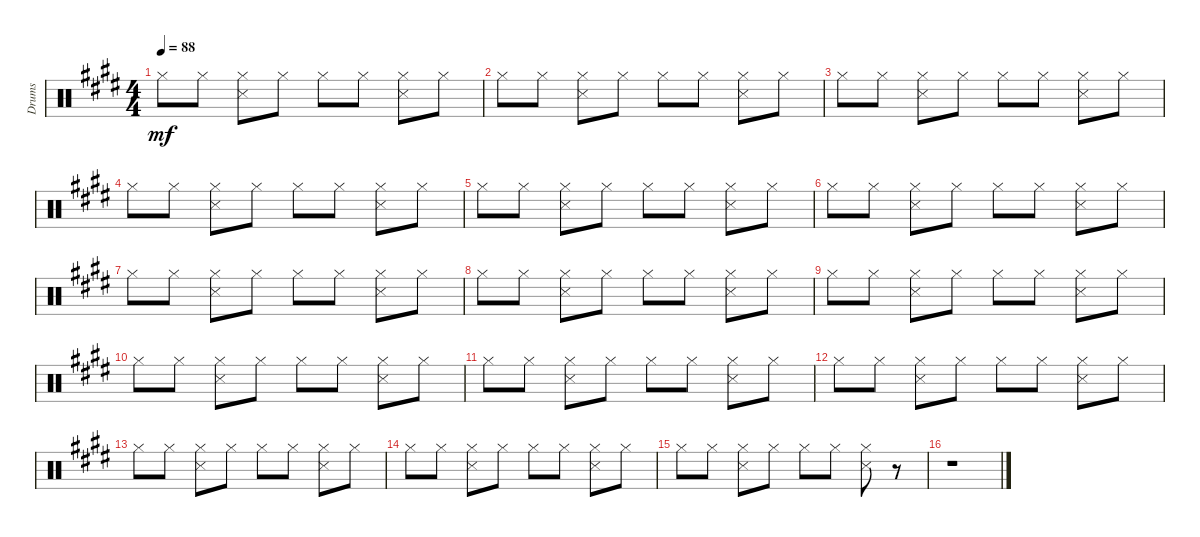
\track ("Drums" "Drums") {instrument percussion}
\staff {score}
\articulation defaults
\ts (4 4)
\tempo 88
\clef neutral
\ks e "Hi-Hat (closed)".8{dy mf} "Hi-Hat (closed)".8
("Hi-Hat (closed)" "Metronome (hit)").8 "Hi-Hat (closed)".8 "Hi-Hat (closed)".8 "Hi-Hat (closed)".8 ("Hi-Hat (closed)" "Metronome (hit)").8 "Hi-Hat (closed)".8 |
"Hi-Hat (closed)".8 "Hi-Hat (closed)".8 ("Hi-Hat (closed)" "Metronome (hit)").8 "Hi-Hat (closed)".8 "Hi-Hat (closed)".8 "Hi-Hat (closed)".8 ("Hi-Hat (closed)" "Metronome (hit)").8 "Hi-Hat (closed)".8 |
"Hi-Hat (closed)".8 "Hi-Hat (closed)".8 ("Hi-Hat (closed)" "Metronome (hit)").8 "Hi-Hat (closed)".8 "Hi-Hat (closed)".8 "Hi-Hat (closed)".8 ("Hi-Hat (closed)" "Metronome (hit)").8 "Hi-Hat (closed)".8 |
"Hi-Hat (closed)".8 "Hi-Hat (closed)".8 ("Hi-Hat (closed)" "Metronome (hit)").8 "Hi-Hat (closed)".8 "Hi-Hat (closed)".8 "Hi-Hat (closed)".8 ("Hi-Hat (closed)" "Metronome (hit)").8 "Hi-Hat (closed)".8 |
"Hi-Hat (closed)".8 "Hi-Hat (closed)".8 ("Hi-Hat (closed)" "Metronome (hit)").8 "Hi-Hat (closed)".8 "Hi-Hat (closed)".8 "Hi-Hat (closed)".8 ("Hi-Hat (closed)" "Metronome (hit)").8 "Hi-Hat (closed)".8 |
"Hi-Hat (closed)".8 "Hi-Hat (closed)".8 ("Hi-Hat (closed)" "Metronome (hit)").8 "Hi-Hat (closed)".8 "Hi-Hat (closed)".8 "Hi-Hat (closed)".8 ("Hi-Hat (closed)" "Metronome (hit)").8 "Hi-Hat (closed)".8 |
"Hi-Hat (closed)".8 "Hi-Hat (closed)".8 ("Hi-Hat (closed)" "Metronome (hit)").8 "Hi-Hat (closed)".8 "Hi-Hat (closed)".8 "Hi-Hat (closed)".8 ("Hi-Hat (closed)" "Metronome (hit)").8 "Hi-Hat (closed)".8 |
"Hi-Hat (closed)".8 "Hi-Hat (closed)".8 ("Hi-Hat (closed)" "Metronome (hit)").8 "Hi-Hat (closed)".8 "Hi-Hat (closed)".8 "Hi-Hat (closed)".8 ("Hi-Hat (closed)" "Metronome (hit)").8 "Hi-Hat (closed)".8 |
"Hi-Hat (closed)".8 "Hi-Hat (closed)".8 ("Hi-Hat (closed)" "Metronome (hit)").8 "Hi-Hat (closed)".8 "Hi-Hat (closed)".8 "Hi-Hat (closed)".8 ("Hi-Hat (closed)" "Metronome (hit)").8 "Hi-Hat (closed)".8 |
"Hi-Hat (closed)".8 "Hi-Hat (closed)".8 ("Hi-Hat (closed)" "Metronome (hit)").8 "Hi-Hat (closed)".8 "Hi-Hat (closed)".8 "Hi-Hat (closed)".8 ("Hi-Hat (closed)" "Metronome (hit)").8 "Hi-Hat (closed)".8 |
"Hi-Hat (closed)".8 "Hi-Hat (closed)".8 ("Hi-Hat (closed)" "Metronome (hit)").8 "Hi-Hat (closed)".8 "Hi-Hat (closed)".8 "Hi-Hat (closed)".8 ("Hi-Hat (closed)" "Metronome (hit)").8 "Hi-Hat (closed)".8 |
"Hi-Hat (closed)".8 "Hi-Hat (closed)".8 ("Hi-Hat (closed)" "Metronome (hit)").8 "Hi-Hat (closed)".8 "Hi-Hat (closed)".8 "Hi-Hat (closed)".8 ("Hi-Hat (closed)" "Metronome (hit)").8 "Hi-Hat (closed)".8 |
"Hi-Hat (closed)".8 "Hi-Hat (closed)".8 ("Hi-Hat (closed)" "Metronome (hit)").8 "Hi-Hat (closed)".8 "Hi-Hat (closed)".8 "Hi-Hat (closed)".8 ("Hi-Hat (closed)" "Metronome (hit)").8 "Hi-Hat (closed)".8 |
"Hi-Hat (closed)".8 "Hi-Hat (closed)".8 ("Hi-Hat (closed)" "Metronome (hit)").8 "Hi-Hat (closed)".8 "Hi-Hat (closed)".8 "Hi-Hat (closed)".8 ("Hi-Hat (closed)" "Metronome (hit)").8 "Hi-Hat (closed)".8 |
"Hi-Hat (closed)".8 "Hi-Hat (closed)".8 ("Hi-Hat (closed)" "Metronome (hit)").8 "Hi-Hat (closed)".8 "Hi-Hat (closed)".8 "Hi-Hat (closed)".8 ("Hi-Hat (closed)" "Metronome (hit)").8 r.8 |
r.1
